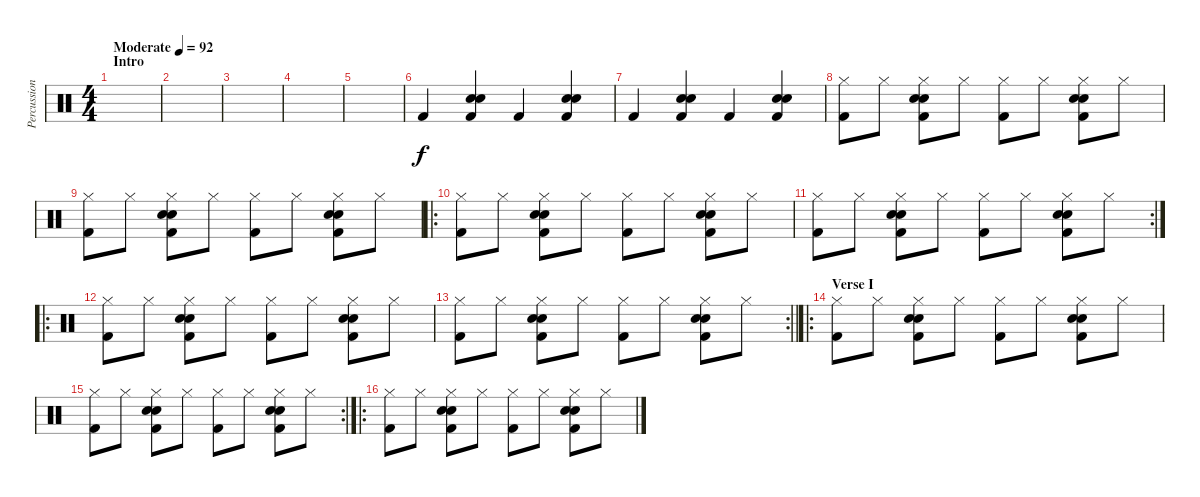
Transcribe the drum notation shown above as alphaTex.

\track ("Percussion" "Percussion") {instrument percussion}
\staff {score}
\articulation defaults
\ts (4 4)
\section ("" "Intro")
\tempo (92 "Moderate")
\clef neutral
\ks c
|
|
|
|
|
"Kick (hit) 2".4 ("Electric Snare (hit)" "Hand Clap (hit)" "Kick (hit) 2").4 "Kick (hit) 2".4 ("Electric Snare (hit)" "Hand Clap (hit)" "Kick (hit) 2").4 |
"Kick (hit) 2".4 ("Electric Snare (hit)" "Hand Clap (hit)" "Kick (hit) 2").4 "Kick (hit) 2".4 ("Electric Snare (hit)" "Hand Clap (hit)" "Kick (hit) 2").4 |
("Hi-Hat (closed)" "Kick (hit) 2").8 "Hi-Hat (closed)".8 ("Hi-Hat (closed)" "Electric Snare (hit)" "Hand Clap (hit)" "Kick (hit) 2").8 "Hi-Hat (closed)".8 ("Hi-Hat (closed)" "Kick (hit) 2").8 "Hi-Hat (closed)".8 ("Hi-Hat (closed)" "Electric Snare (hit)" "Hand Clap (hit)" "Kick (hit) 2").8 "Hi-Hat (closed)".8 |
("Hi-Hat (closed)" "Kick (hit) 2").8 "Hi-Hat (closed)".8 ("Hi-Hat (closed)" "Electric Snare (hit)" "Hand Clap (hit)" "Kick (hit) 2").8 "Hi-Hat (closed)".8 ("Hi-Hat (closed)" "Kick (hit) 2").8 "Hi-Hat (closed)".8 ("Hi-Hat (closed)" "Electric Snare (hit)" "Hand Clap (hit)" "Kick (hit) 2").8 "Hi-Hat (closed)".8 |
\ro
("Hi-Hat (closed)" "Kick (hit) 2").8 "Hi-Hat (closed)".8 ("Hi-Hat (closed)" "Electric Snare (hit)" "Hand Clap (hit)" "Kick (hit) 2").8 "Hi-Hat (closed)".8 ("Hi-Hat (closed)" "Kick (hit) 2").8 "Hi-Hat (closed)".8 ("Hi-Hat (closed)" "Electric Snare (hit)" "Hand Clap (hit)" "Kick (hit) 2").8 "Hi-Hat (closed)".8 |
\rc 2
("Hi-Hat (closed)" "Kick (hit) 2").8 "Hi-Hat (closed)".8 ("Hi-Hat (closed)" "Electric Snare (hit)" "Hand Clap (hit)" "Kick (hit) 2").8 "Hi-Hat (closed)".8 ("Hi-Hat (closed)" "Kick (hit) 2").8 "Hi-Hat (closed)".8 ("Hi-Hat (closed)" "Electric Snare (hit)" "Hand Clap (hit)" "Kick (hit) 2").8 "Hi-Hat (closed)".8 |
\ro
("Hi-Hat (closed)" "Kick (hit) 2").8 "Hi-Hat (closed)".8 ("Hi-Hat (closed)" "Electric Snare (hit)" "Hand Clap (hit)" "Kick (hit) 2").8 "Hi-Hat (closed)".8 ("Hi-Hat (closed)" "Kick (hit) 2").8 "Hi-Hat (closed)".8 ("Hi-Hat (closed)" "Electric Snare (hit)" "Hand Clap (hit)" "Kick (hit) 2").8 "Hi-Hat (closed)".8 |
\rc 2
\barLineRight lightlight
("Hi-Hat (closed)" "Kick (hit) 2").8 "Hi-Hat (closed)".8 ("Hi-Hat (closed)" "Electric Snare (hit)" "Hand Clap (hit)" "Kick (hit) 2").8 "Hi-Hat (closed)".8 ("Hi-Hat (closed)" "Kick (hit) 2").8 "Hi-Hat (closed)".8 ("Hi-Hat (closed)" "Electric Snare (hit)" "Hand Clap (hit)" "Kick (hit) 2").8 "Hi-Hat (closed)".8 |
\ro
\section ("" "Verse I")
("Hi-Hat (closed)" "Kick (hit) 2").8 "Hi-Hat (closed)".8 ("Hi-Hat (closed)" "Electric Snare (hit)" "Hand Clap (hit)" "Kick (hit) 2").8 "Hi-Hat (closed)".8 ("Hi-Hat (closed)" "Kick (hit) 2").8 "Hi-Hat (closed)".8 ("Hi-Hat (closed)" "Electric Snare (hit)" "Hand Clap (hit)" "Kick (hit) 2").8 "Hi-Hat (closed)".8 |
\rc 2
("Hi-Hat (closed)" "Kick (hit) 2").8 "Hi-Hat (closed)".8 ("Hi-Hat (closed)" "Electric Snare (hit)" "Hand Clap (hit)" "Kick (hit) 2").8 "Hi-Hat (closed)".8 ("Hi-Hat (closed)" "Kick (hit) 2").8 "Hi-Hat (closed)".8 ("Hi-Hat (closed)" "Electric Snare (hit)" "Hand Clap (hit)" "Kick (hit) 2").8 "Hi-Hat (closed)".8 |
\ro
("Hi-Hat (closed)" "Kick (hit) 2").8 "Hi-Hat (closed)".8 ("Hi-Hat (closed)" "Electric Snare (hit)" "Hand Clap (hit)" "Kick (hit) 2").8 "Hi-Hat (closed)".8 ("Hi-Hat (closed)" "Kick (hit) 2").8 "Hi-Hat (closed)".8 ("Hi-Hat (closed)" "Electric Snare (hit)" "Hand Clap (hit)" "Kick (hit) 2").8 "Hi-Hat (closed)".8
